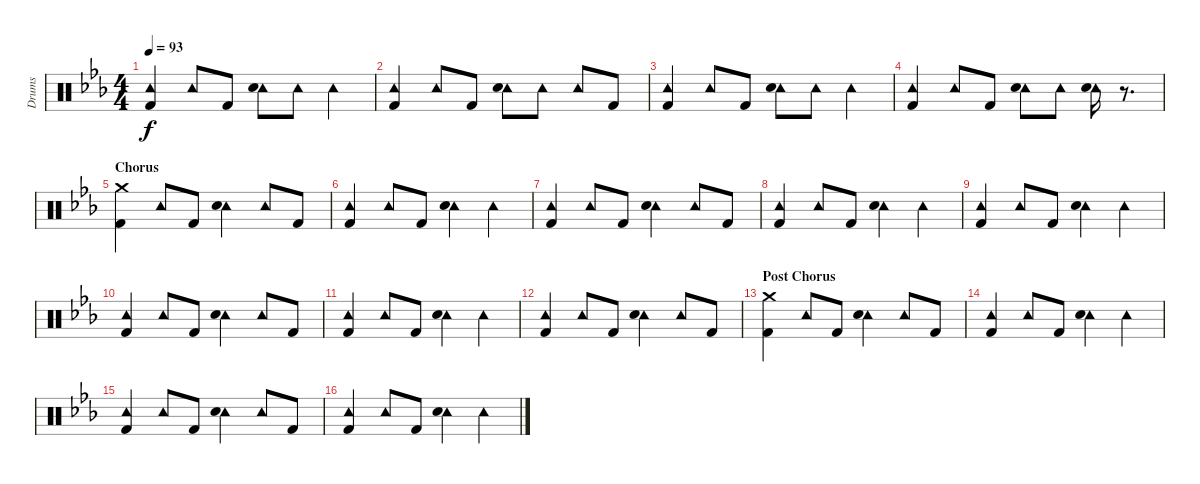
\track ("Drums" "Drums") {instrument percussion}
\staff {score}
\articulation defaults
\ts (4 4)
\tempo 93
\clef neutral
\ks eb
("Tambourine (hit)" "Kick (hit) 2").4{dy f} "Tambourine (hit)".8 "Kick (hit) 2".8 ("Tambourine (hit)" "Snare (hit) 2").8 "Tambourine (hit)".8 "Tambourine (hit)".4 |
("Tambourine (hit)" "Kick (hit) 2").4 "Tambourine (hit)".8 "Kick (hit) 2".8 ("Tambourine (hit)" "Snare (hit) 2").8 "Tambourine (hit)".8 "Tambourine (hit)".8 "Kick (hit) 2".8 |
("Tambourine (hit)" "Kick (hit) 2").4 "Tambourine (hit)".8 "Kick (hit) 2".8 ("Tambourine (hit)" "Snare (hit) 2").8 "Tambourine (hit)".8 "Tambourine (hit)".4 |
("Tambourine (hit)" "Kick (hit) 2").4 "Tambourine (hit)".8 "Kick (hit) 2".8 ("Tambourine (hit)" "Snare (hit) 2").8 "Tambourine (hit)".8 ("Tambourine (hit)" "Snare (hit) 2").16 r.8{d} |
\section ("" "Chorus")
("Crash medium (hit)" "Kick (hit) 2").4 "Tambourine (hit)".8 "Kick (hit) 2".8 ("Tambourine (hit)" "Snare (hit) 2").4 "Tambourine (hit)".8 "Kick (hit) 2".8 |
("Tambourine (hit)" "Kick (hit) 2").4 "Tambourine (hit)".8 "Kick (hit) 2".8 ("Tambourine (hit)" "Snare (hit) 2").4 "Tambourine (hit)".4 |
("Tambourine (hit)" "Kick (hit) 2").4 "Tambourine (hit)".8 "Kick (hit) 2".8 ("Tambourine (hit)" "Snare (hit) 2").4 "Tambourine (hit)".8 "Kick (hit) 2".8 |
("Tambourine (hit)" "Kick (hit) 2").4 "Tambourine (hit)".8 "Kick (hit) 2".8 ("Tambourine (hit)" "Snare (hit) 2").4 "Tambourine (hit)".4 |
("Tambourine (hit)" "Kick (hit) 2").4 "Tambourine (hit)".8 "Kick (hit) 2".8 ("Tambourine (hit)" "Snare (hit) 2").4 "Tambourine (hit)".4 |
("Tambourine (hit)" "Kick (hit) 2").4 "Tambourine (hit)".8 "Kick (hit) 2".8 ("Tambourine (hit)" "Snare (hit) 2").4 "Tambourine (hit)".8 "Kick (hit) 2".8 |
("Tambourine (hit)" "Kick (hit) 2").4 "Tambourine (hit)".8 "Kick (hit) 2".8 ("Tambourine (hit)" "Snare (hit) 2").4 "Tambourine (hit)".4 |
("Tambourine (hit)" "Kick (hit) 2").4 "Tambourine (hit)".8 "Kick (hit) 2".8 ("Tambourine (hit)" "Snare (hit) 2").4 "Tambourine (hit)".8 "Kick (hit) 2".8 |
\section ("" "Post Chorus")
("Crash medium (hit)" "Kick (hit) 2").4 "Tambourine (hit)".8 "Kick (hit) 2".8 ("Tambourine (hit)" "Snare (hit) 2").4 "Tambourine (hit)".8 "Kick (hit) 2".8 |
("Tambourine (hit)" "Kick (hit) 2").4 "Tambourine (hit)".8 "Kick (hit) 2".8 ("Tambourine (hit)" "Snare (hit) 2").4 "Tambourine (hit)".4 |
("Tambourine (hit)" "Kick (hit) 2").4 "Tambourine (hit)".8 "Kick (hit) 2".8 ("Tambourine (hit)" "Snare (hit) 2").4 "Tambourine (hit)".8 "Kick (hit) 2".8 |
("Tambourine (hit)" "Kick (hit) 2").4 "Tambourine (hit)".8 "Kick (hit) 2".8 ("Tambourine (hit)" "Snare (hit) 2").4 "Tambourine (hit)".4
